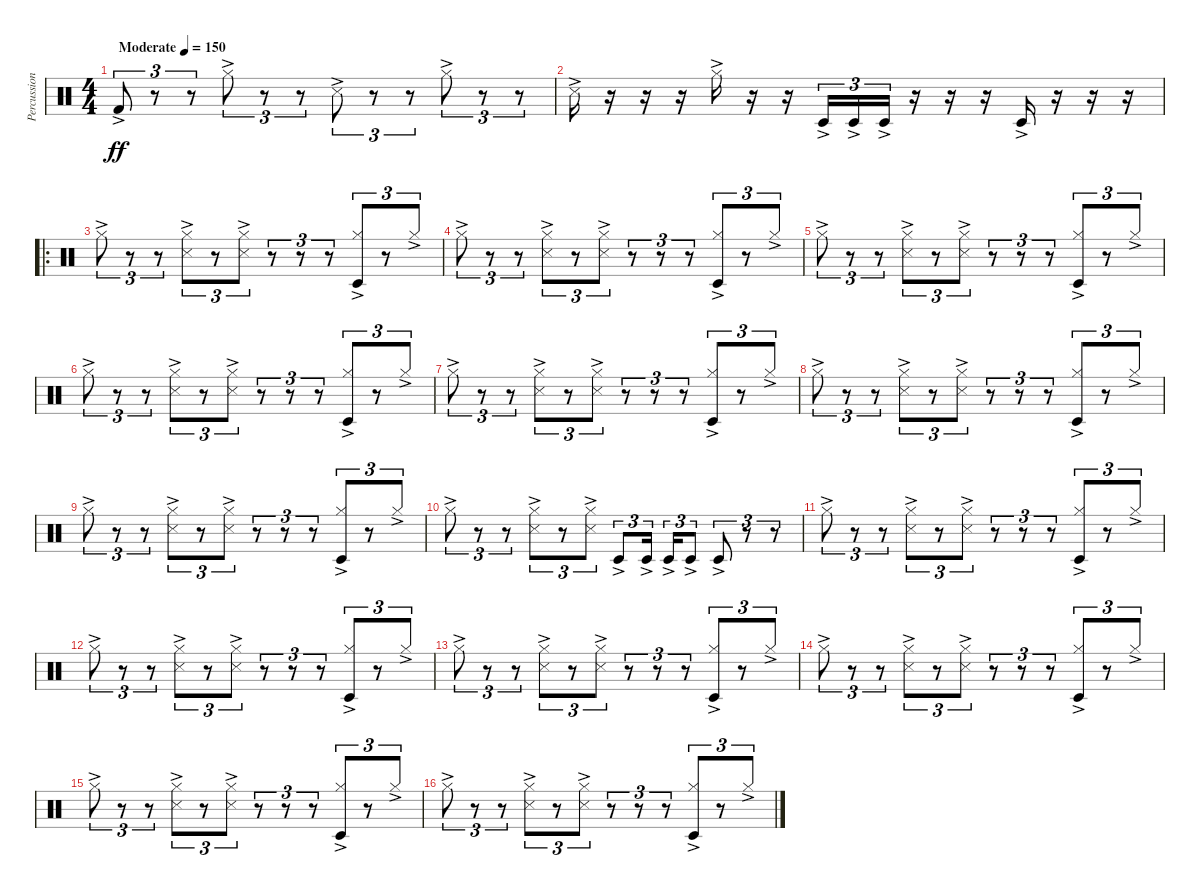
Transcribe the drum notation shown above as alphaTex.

\track ("Percussion" "Percussion") {instrument percussion}
\staff {score}
\articulation defaults
\ts (4 4)
\tempo (150 "Moderate")
\clef neutral
\ks c "Kick (hit) 2"{ac}.8{tu (3 2) dy ff}
r.8{tu (3 2)} r.8{tu (3 2)} "Hi-Hat (closed)"{ac}.8{tu (3 2)} r.8{tu (3 2)} r.8{tu (3 2)} "Snare (side stick) 3"{ac}.8{tu (3 2)} r.8{tu (3 2)} r.8{tu (3 2)} "Hi-Hat (closed)"{ac}.8{tu (3 2)} r.8{tu (3 2)} r.8{tu (3 2)} |
"Snare (side stick) 3"{ac}.16 r.16 r.16 r.16 "Hi-Hat (closed)"{ac}.16 r.16 r.16 "Timbale low (hit)"{ac}.16{tu (3 2)} "Timbale low (hit)"{ac}.16{tu (3 2)} "Timbale low (hit)"{ac}.16{tu (3 2)} r.16 r.16 r.16 "Timbale low (hit)"{ac}.16 r.16 r.16 r.16 |
\ro "Hi-Hat (closed)"{ac}.8{tu (3 2)}
r.8{tu (3 2)} r.8{tu (3 2)} ("Hi-Hat (closed)"{ac} "Snare (side stick) 3"{ac}).8{tu (3 2)} r.8{tu (3 2)} ("Hi-Hat (closed)"{ac} "Snare (side stick) 3"{ac}).8{tu (3 2)} r.8{tu (3 2)} r.8{tu (3 2)} r.8{tu (3 2)} ("Hi-Hat (closed)"{ac} "Timbale low (hit)"{ac}).8{tu (3 2)} r.8{tu (3 2)} "Hi-Hat (closed)"{ac}.8{tu (3 2)} |
"Hi-Hat (closed)"{ac}.8{tu (3 2)} r.8{tu (3 2)} r.8{tu (3 2)} ("Hi-Hat (closed)"{ac} "Snare (side stick) 3"{ac}).8{tu (3 2)} r.8{tu (3 2)} ("Hi-Hat (closed)"{ac} "Snare (side stick) 3"{ac}).8{tu (3 2)} r.8{tu (3 2)} r.8{tu (3 2)} r.8{tu (3 2)} ("Hi-Hat (closed)"{ac} "Timbale low (hit)"{ac}).8{tu (3 2)} r.8{tu (3 2)} "Hi-Hat (closed)"{ac}.8{tu (3 2)} |
"Hi-Hat (closed)"{ac}.8{tu (3 2)} r.8{tu (3 2)} r.8{tu (3 2)} ("Hi-Hat (closed)"{ac} "Snare (side stick) 3"{ac}).8{tu (3 2)} r.8{tu (3 2)} ("Hi-Hat (closed)"{ac} "Snare (side stick) 3"{ac}).8{tu (3 2)} r.8{tu (3 2)} r.8{tu (3 2)} r.8{tu (3 2)} ("Hi-Hat (closed)"{ac} "Timbale low (hit)"{ac}).8{tu (3 2)} r.8{tu (3 2)} "Hi-Hat (closed)"{ac}.8{tu (3 2)} |
"Hi-Hat (closed)"{ac}.8{tu (3 2)} r.8{tu (3 2)} r.8{tu (3 2)} ("Hi-Hat (closed)"{ac} "Snare (side stick) 3"{ac}).8{tu (3 2)} r.8{tu (3 2)} ("Hi-Hat (closed)"{ac} "Snare (side stick) 3"{ac}).8{tu (3 2)} r.8{tu (3 2)} r.8{tu (3 2)} r.8{tu (3 2)} ("Hi-Hat (closed)"{ac} "Timbale low (hit)"{ac}).8{tu (3 2)} r.8{tu (3 2)} "Hi-Hat (closed)"{ac}.8{tu (3 2)} |
"Hi-Hat (closed)"{ac}.8{tu (3 2)} r.8{tu (3 2)} r.8{tu (3 2)} ("Hi-Hat (closed)"{ac} "Snare (side stick) 3"{ac}).8{tu (3 2)} r.8{tu (3 2)} ("Hi-Hat (closed)"{ac} "Snare (side stick) 3"{ac}).8{tu (3 2)} r.8{tu (3 2)} r.8{tu (3 2)} r.8{tu (3 2)} ("Hi-Hat (closed)"{ac} "Timbale low (hit)"{ac}).8{tu (3 2)} r.8{tu (3 2)} "Hi-Hat (closed)"{ac}.8{tu (3 2)} |
"Hi-Hat (closed)"{ac}.8{tu (3 2)} r.8{tu (3 2)} r.8{tu (3 2)} ("Hi-Hat (closed)"{ac} "Snare (side stick) 3"{ac}).8{tu (3 2)} r.8{tu (3 2)} ("Hi-Hat (closed)"{ac} "Snare (side stick) 3"{ac}).8{tu (3 2)} r.8{tu (3 2)} r.8{tu (3 2)} r.8{tu (3 2)} ("Hi-Hat (closed)"{ac} "Timbale low (hit)"{ac}).8{tu (3 2)} r.8{tu (3 2)} "Hi-Hat (closed)"{ac}.8{tu (3 2)} |
"Hi-Hat (closed)"{ac}.8{tu (3 2)} r.8{tu (3 2)} r.8{tu (3 2)} ("Hi-Hat (closed)"{ac} "Snare (side stick) 3"{ac}).8{tu (3 2)} r.8{tu (3 2)} ("Hi-Hat (closed)"{ac} "Snare (side stick) 3"{ac}).8{tu (3 2)} r.8{tu (3 2)} r.8{tu (3 2)} r.8{tu (3 2)} ("Hi-Hat (closed)"{ac} "Timbale low (hit)"{ac}).8{tu (3 2)} r.8{tu (3 2)} "Hi-Hat (closed)"{ac}.8{tu (3 2)} |
"Hi-Hat (closed)"{ac}.8{tu (3 2)} r.8{tu (3 2)} r.8{tu (3 2)} ("Hi-Hat (closed)"{ac} "Snare (side stick) 3"{ac}).8{tu (3 2)} r.8{tu (3 2)} ("Hi-Hat (closed)"{ac} "Snare (side stick) 3"{ac}).8{tu (3 2)} "Timbale low (hit)"{ac}.8{tu (3 2)} "Timbale low (hit)"{ac}.16{tu (3 2) beam splitsecondary} "Timbale low (hit)"{ac}.16{tu (3 2)} "Timbale low (hit)"{ac}.8{tu (3 2)} "Timbale low (hit)"{ac}.8{tu (3 2)} r.8{tu (3 2)} r.8{tu (3 2)} |
"Hi-Hat (closed)"{ac}.8{tu (3 2)} r.8{tu (3 2)} r.8{tu (3 2)} ("Hi-Hat (closed)"{ac} "Snare (side stick) 3"{ac}).8{tu (3 2)} r.8{tu (3 2)} ("Hi-Hat (closed)"{ac} "Snare (side stick) 3"{ac}).8{tu (3 2)} r.8{tu (3 2)} r.8{tu (3 2)} r.8{tu (3 2)} ("Hi-Hat (closed)"{ac} "Timbale low (hit)"{ac}).8{tu (3 2)} r.8{tu (3 2)} "Hi-Hat (closed)"{ac}.8{tu (3 2)} |
"Hi-Hat (closed)"{ac}.8{tu (3 2)} r.8{tu (3 2)} r.8{tu (3 2)} ("Hi-Hat (closed)"{ac} "Snare (side stick) 3"{ac}).8{tu (3 2)} r.8{tu (3 2)} ("Hi-Hat (closed)"{ac} "Snare (side stick) 3"{ac}).8{tu (3 2)} r.8{tu (3 2)} r.8{tu (3 2)} r.8{tu (3 2)} ("Hi-Hat (closed)"{ac} "Timbale low (hit)"{ac}).8{tu (3 2)} r.8{tu (3 2)} "Hi-Hat (closed)"{ac}.8{tu (3 2)} |
"Hi-Hat (closed)"{ac}.8{tu (3 2)} r.8{tu (3 2)} r.8{tu (3 2)} ("Hi-Hat (closed)"{ac} "Snare (side stick) 3"{ac}).8{tu (3 2)} r.8{tu (3 2)} ("Hi-Hat (closed)"{ac} "Snare (side stick) 3"{ac}).8{tu (3 2)} r.8{tu (3 2)} r.8{tu (3 2)} r.8{tu (3 2)} ("Hi-Hat (closed)"{ac} "Timbale low (hit)"{ac}).8{tu (3 2)} r.8{tu (3 2)} "Hi-Hat (closed)"{ac}.8{tu (3 2)} |
"Hi-Hat (closed)"{ac}.8{tu (3 2)} r.8{tu (3 2)} r.8{tu (3 2)} ("Hi-Hat (closed)"{ac} "Snare (side stick) 3"{ac}).8{tu (3 2)} r.8{tu (3 2)} ("Hi-Hat (closed)"{ac} "Snare (side stick) 3"{ac}).8{tu (3 2)} r.8{tu (3 2)} r.8{tu (3 2)} r.8{tu (3 2)} ("Hi-Hat (closed)"{ac} "Timbale low (hit)"{ac}).8{tu (3 2)} r.8{tu (3 2)} "Hi-Hat (closed)"{ac}.8{tu (3 2)} |
"Hi-Hat (closed)"{ac}.8{tu (3 2)} r.8{tu (3 2)} r.8{tu (3 2)} ("Hi-Hat (closed)"{ac} "Snare (side stick) 3"{ac}).8{tu (3 2)} r.8{tu (3 2)} ("Hi-Hat (closed)"{ac} "Snare (side stick) 3"{ac}).8{tu (3 2)} r.8{tu (3 2)} r.8{tu (3 2)} r.8{tu (3 2)} ("Hi-Hat (closed)"{ac} "Timbale low (hit)"{ac}).8{tu (3 2)} r.8{tu (3 2)} "Hi-Hat (closed)"{ac}.8{tu (3 2)} |
"Hi-Hat (closed)"{ac}.8{tu (3 2)} r.8{tu (3 2)} r.8{tu (3 2)} ("Hi-Hat (closed)"{ac} "Snare (side stick) 3"{ac}).8{tu (3 2)} r.8{tu (3 2)} ("Hi-Hat (closed)"{ac} "Snare (side stick) 3"{ac}).8{tu (3 2)} r.8{tu (3 2)} r.8{tu (3 2)} r.8{tu (3 2)} ("Hi-Hat (closed)"{ac} "Timbale low (hit)"{ac}).8{tu (3 2)} r.8{tu (3 2)} "Hi-Hat (closed)"{ac}.8{tu (3 2)}
